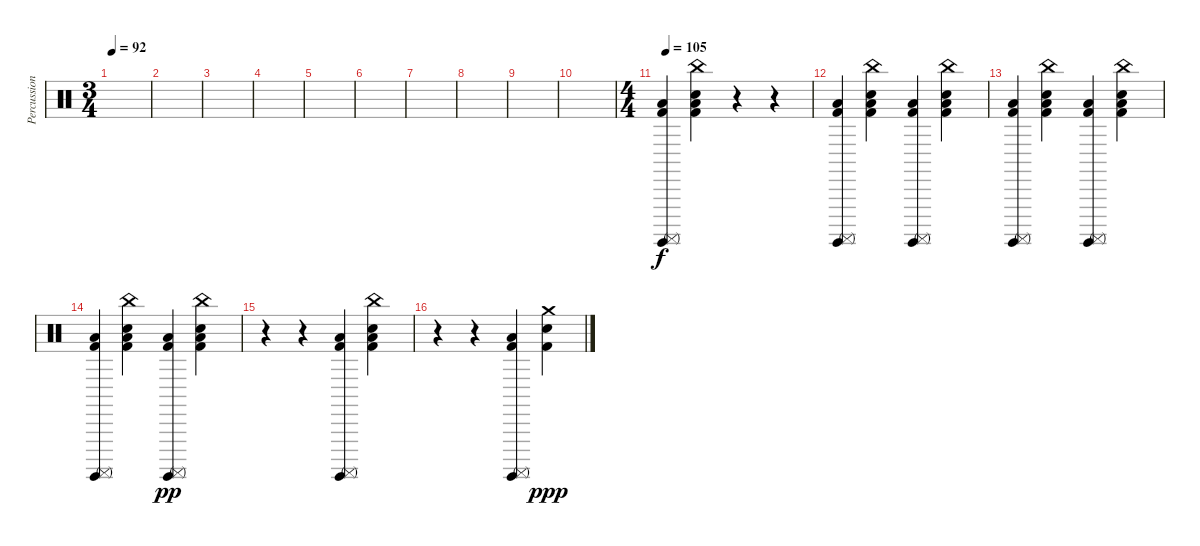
\track ("Percussion" "Percussion") {instrument percussion}
\staff
\articulation defaults
\ts (3 4)
\tempo 92
\clef neutral
\ks c
|
|
|
|
|
|
|
|
|
|
\ts (4 4)
\tempo 105
("Surdo (hit)" "Surdo (mute)" "Low Floor Tom (hit)" "Kick (hit) 2").4 ("China (hit)" "Snare (hit) 2" "Low Floor Tom (hit)" "Kick (hit) 2").4 r.4 r.4 |
("Surdo (hit)" "Surdo (mute)" "Low Floor Tom (hit)" "Kick (hit) 2").4 ("China (hit)" "Snare (hit) 2" "Low Floor Tom (hit)" "Kick (hit) 2").4 ("Surdo (hit)" "Surdo (mute)" "Low Floor Tom (hit)" "Kick (hit) 2").4 ("China (hit)" "Snare (hit) 2" "Low Floor Tom (hit)" "Kick (hit) 2").4 |
("Surdo (hit)" "Surdo (mute)" "Low Floor Tom (hit)" "Kick (hit) 2").4 ("China (hit)" "Snare (hit) 2" "Low Floor Tom (hit)" "Kick (hit) 2").4 ("Surdo (hit)" "Surdo (mute)" "Low Floor Tom (hit)" "Kick (hit) 2").4 ("China (hit)" "Snare (hit) 2" "Low Floor Tom (hit)" "Kick (hit) 2").4 |
("Surdo (hit)" "Surdo (mute)" "Low Floor Tom (hit)" "Kick (hit) 2").4 ("China (hit)" "Snare (hit) 2" "Low Floor Tom (hit)" "Kick (hit) 2").4 ("Surdo (hit)" "Surdo (mute)" "Low Floor Tom (hit)" "Kick (hit) 2").4{dy pp} ("China (hit)" "Snare (hit) 2" "Low Floor Tom (hit)" "Kick (hit) 2").4 |
r.4 r.4 ("Surdo (hit)" "Surdo (mute)" "Low Floor Tom (hit)" "Kick (hit) 2").4 ("China (hit)" "Snare (hit) 2" "Low Floor Tom (hit)" "Kick (hit) 2").4 |
r.4 r.4 ("Surdo (hit)" "Surdo (mute)" "Low Floor Tom (hit)" "Kick (hit) 2").4 ("Crash medium (hit)" "Snare (hit) 2" "Kick (hit) 2").4{dy ppp}
